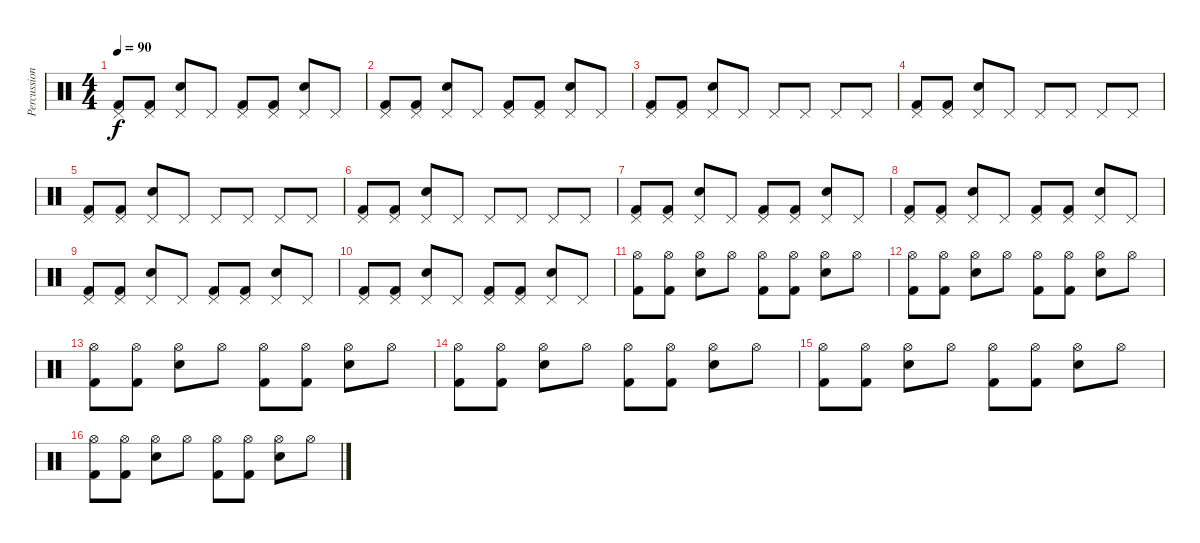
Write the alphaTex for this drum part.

\track ("Percussions" "Percussion") {instrument percussion}
\staff {score}
\articulation defaults
\ts (4 4)
\tempo 90
\clef neutral
\ks c
("Pedal Hi-Hat (hit)" "Kick (hit) 2").8{dy f} ("Pedal Hi-Hat (hit)" "Kick (hit) 2").8 ("Pedal Hi-Hat (hit)" "Electric Snare (hit)").8 "Pedal Hi-Hat (hit)".8 ("Pedal Hi-Hat (hit)" "Kick (hit) 2").8 ("Pedal Hi-Hat (hit)" "Kick (hit) 2").8 ("Pedal Hi-Hat (hit)" "Electric Snare (hit)").8 "Pedal Hi-Hat (hit)".8 |
("Pedal Hi-Hat (hit)" "Kick (hit) 2").8 ("Pedal Hi-Hat (hit)" "Kick (hit) 2").8 ("Pedal Hi-Hat (hit)" "Electric Snare (hit)").8 "Pedal Hi-Hat (hit)".8 ("Pedal Hi-Hat (hit)" "Kick (hit) 2").8 ("Pedal Hi-Hat (hit)" "Kick (hit) 2").8 ("Pedal Hi-Hat (hit)" "Electric Snare (hit)").8 "Pedal Hi-Hat (hit)".8 |
("Pedal Hi-Hat (hit)" "Kick (hit) 2").8 ("Pedal Hi-Hat (hit)" "Kick (hit) 2").8 ("Pedal Hi-Hat (hit)" "Electric Snare (hit)").8 "Pedal Hi-Hat (hit)".8 "Pedal Hi-Hat (hit)".8 "Pedal Hi-Hat (hit)".8 "Pedal Hi-Hat (hit)".8 "Pedal Hi-Hat (hit)".8 |
("Pedal Hi-Hat (hit)" "Kick (hit) 2").8 ("Pedal Hi-Hat (hit)" "Kick (hit) 2").8 ("Pedal Hi-Hat (hit)" "Electric Snare (hit)").8 "Pedal Hi-Hat (hit)".8 "Pedal Hi-Hat (hit)".8 "Pedal Hi-Hat (hit)".8 "Pedal Hi-Hat (hit)".8 "Pedal Hi-Hat (hit)".8 |
("Pedal Hi-Hat (hit)" "Kick (hit) 2").8 ("Pedal Hi-Hat (hit)" "Kick (hit) 2").8 ("Pedal Hi-Hat (hit)" "Electric Snare (hit)").8 "Pedal Hi-Hat (hit)".8 "Pedal Hi-Hat (hit)".8 "Pedal Hi-Hat (hit)".8 "Pedal Hi-Hat (hit)".8 "Pedal Hi-Hat (hit)".8 |
("Pedal Hi-Hat (hit)" "Kick (hit) 2").8 ("Pedal Hi-Hat (hit)" "Kick (hit) 2").8 ("Pedal Hi-Hat (hit)" "Electric Snare (hit)").8 "Pedal Hi-Hat (hit)".8 "Pedal Hi-Hat (hit)".8 "Pedal Hi-Hat (hit)".8 "Pedal Hi-Hat (hit)".8 "Pedal Hi-Hat (hit)".8 |
("Pedal Hi-Hat (hit)" "Kick (hit) 2").8 ("Pedal Hi-Hat (hit)" "Kick (hit) 2").8 ("Pedal Hi-Hat (hit)" "Electric Snare (hit)").8 "Pedal Hi-Hat (hit)".8 ("Pedal Hi-Hat (hit)" "Kick (hit) 2").8 ("Pedal Hi-Hat (hit)" "Kick (hit) 2").8 ("Pedal Hi-Hat (hit)" "Electric Snare (hit)").8 "Pedal Hi-Hat (hit)".8 |
("Pedal Hi-Hat (hit)" "Kick (hit) 2").8 ("Pedal Hi-Hat (hit)" "Kick (hit) 2").8 ("Pedal Hi-Hat (hit)" "Electric Snare (hit)").8 "Pedal Hi-Hat (hit)".8 ("Pedal Hi-Hat (hit)" "Kick (hit) 2").8 ("Pedal Hi-Hat (hit)" "Kick (hit) 2").8 ("Pedal Hi-Hat (hit)" "Electric Snare (hit)").8 "Pedal Hi-Hat (hit)".8 |
("Pedal Hi-Hat (hit)" "Kick (hit) 2").8 ("Pedal Hi-Hat (hit)" "Kick (hit) 2").8 ("Pedal Hi-Hat (hit)" "Electric Snare (hit)").8 "Pedal Hi-Hat (hit)".8 ("Pedal Hi-Hat (hit)" "Kick (hit) 2").8 ("Pedal Hi-Hat (hit)" "Kick (hit) 2").8 ("Pedal Hi-Hat (hit)" "Electric Snare (hit)").8 "Pedal Hi-Hat (hit)".8 |
("Pedal Hi-Hat (hit)" "Kick (hit) 2").8 ("Pedal Hi-Hat (hit)" "Kick (hit) 2").8 ("Pedal Hi-Hat (hit)" "Electric Snare (hit)").8 "Pedal Hi-Hat (hit)".8 ("Pedal Hi-Hat (hit)" "Kick (hit) 2").8 ("Pedal Hi-Hat (hit)" "Kick (hit) 2").8 ("Pedal Hi-Hat (hit)" "Electric Snare (hit)").8 "Pedal Hi-Hat (hit)".8 |
("Hi-Hat (open)" "Kick (hit) 2").8 ("Hi-Hat (open)" "Kick (hit) 2").8 ("Hi-Hat (open)" "Electric Snare (hit)").8 "Hi-Hat (open)".8 ("Hi-Hat (open)" "Kick (hit) 2").8 ("Hi-Hat (open)" "Kick (hit) 2").8 ("Hi-Hat (open)" "Electric Snare (hit)").8 "Hi-Hat (open)".8 |
("Hi-Hat (open)" "Kick (hit) 2").8 ("Hi-Hat (open)" "Kick (hit) 2").8 ("Hi-Hat (open)" "Electric Snare (hit)").8 "Hi-Hat (open)".8 ("Hi-Hat (open)" "Kick (hit) 2").8 ("Hi-Hat (open)" "Kick (hit) 2").8 ("Hi-Hat (open)" "Electric Snare (hit)").8 "Hi-Hat (open)".8 |
("Hi-Hat (open)" "Kick (hit) 2").8 ("Hi-Hat (open)" "Kick (hit) 2").8 ("Hi-Hat (open)" "Electric Snare (hit)").8 "Hi-Hat (open)".8 ("Hi-Hat (open)" "Kick (hit) 2").8 ("Hi-Hat (open)" "Kick (hit) 2").8 ("Hi-Hat (open)" "Electric Snare (hit)").8 "Hi-Hat (open)".8 |
("Hi-Hat (open)" "Kick (hit) 2").8 ("Hi-Hat (open)" "Kick (hit) 2").8 ("Hi-Hat (open)" "Electric Snare (hit)").8 "Hi-Hat (open)".8 ("Hi-Hat (open)" "Kick (hit) 2").8 ("Hi-Hat (open)" "Kick (hit) 2").8 ("Hi-Hat (open)" "Electric Snare (hit)").8 "Hi-Hat (open)".8 |
("Hi-Hat (open)" "Kick (hit) 2").8 ("Hi-Hat (open)" "Kick (hit) 2").8 ("Hi-Hat (open)" "Electric Snare (hit)").8 "Hi-Hat (open)".8 ("Hi-Hat (open)" "Kick (hit) 2").8 ("Hi-Hat (open)" "Kick (hit) 2").8 ("Hi-Hat (open)" "Electric Snare (hit)").8 "Hi-Hat (open)".8 |
("Hi-Hat (open)" "Kick (hit) 2").8 ("Hi-Hat (open)" "Kick (hit) 2").8 ("Hi-Hat (open)" "Electric Snare (hit)").8 "Hi-Hat (open)".8 ("Hi-Hat (open)" "Kick (hit) 2").8 ("Hi-Hat (open)" "Kick (hit) 2").8 ("Hi-Hat (open)" "Electric Snare (hit)").8 "Hi-Hat (open)".8
